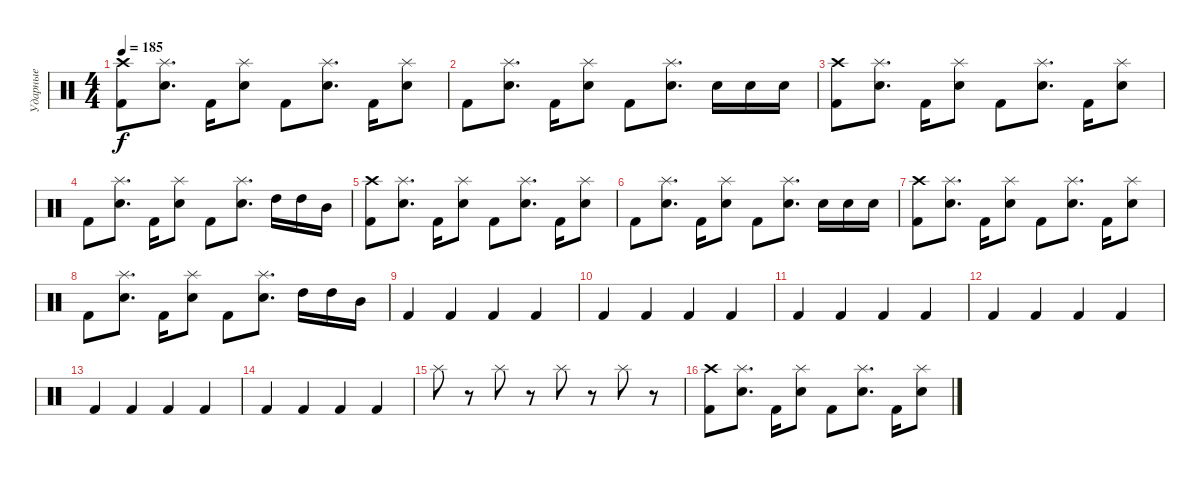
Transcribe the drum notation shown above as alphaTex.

\track ("Ударные" "Ударные") {instrument percussion}
\staff {score}
\articulation defaults
\ts (4 4)
\tempo 185
\clef neutral
\ks c
("Crash high (hit)" "Kick (hit) 2").8{dy f} ("Splash (hit)" "Electric Snare (hit)").8{d} "Kick (hit) 2".16 ("Splash (hit)" "Electric Snare (hit)").8 "Kick (hit) 2".8 ("Splash (hit)" "Electric Snare (hit)").8{d} "Kick (hit) 2".16 ("Splash (hit)" "Electric Snare (hit)").8 |
"Kick (hit) 2".8 ("Splash (hit)" "Electric Snare (hit)").8{d} "Kick (hit) 2".16 ("Splash (hit)" "Electric Snare (hit)").8 "Kick (hit) 2".8 ("Splash (hit)" "Electric Snare (hit)").8{d} "Electric Snare (hit)".16 "Electric Snare (hit)".16 "Electric Snare (hit)".16 |
("Crash high (hit)" "Kick (hit) 2").8 ("Splash (hit)" "Electric Snare (hit)").8{d} "Kick (hit) 2".16 ("Splash (hit)" "Electric Snare (hit)").8 "Kick (hit) 2".8 ("Splash (hit)" "Electric Snare (hit)").8{d} "Kick (hit) 2".16 ("Splash (hit)" "Electric Snare (hit)").8 |
"Kick (hit) 2".8 ("Splash (hit)" "Electric Snare (hit)").8{d} "Kick (hit) 2".16 ("Splash (hit)" "Electric Snare (hit)").8 "Kick (hit) 2".8 ("Splash (hit)" "Electric Snare (hit)").8{d} "High Tom (hit)".16 "High Tom (hit)".16 "Mid Tom (hit)".16 |
("Crash high (hit)" "Kick (hit) 2").8 ("Splash (hit)" "Electric Snare (hit)").8{d} "Kick (hit) 2".16 ("Splash (hit)" "Electric Snare (hit)").8 "Kick (hit) 2".8 ("Splash (hit)" "Electric Snare (hit)").8{d} "Kick (hit) 2".16 ("Splash (hit)" "Electric Snare (hit)").8 |
"Kick (hit) 2".8 ("Splash (hit)" "Electric Snare (hit)").8{d} "Kick (hit) 2".16 ("Splash (hit)" "Electric Snare (hit)").8 "Kick (hit) 2".8 ("Splash (hit)" "Electric Snare (hit)").8{d} "Electric Snare (hit)".16 "Electric Snare (hit)".16 "Electric Snare (hit)".16 |
("Crash high (hit)" "Kick (hit) 2").8 ("Splash (hit)" "Electric Snare (hit)").8{d} "Kick (hit) 2".16 ("Splash (hit)" "Electric Snare (hit)").8 "Kick (hit) 2".8 ("Splash (hit)" "Electric Snare (hit)").8{d} "Kick (hit) 2".16 ("Splash (hit)" "Electric Snare (hit)").8 |
"Kick (hit) 2".8 ("Splash (hit)" "Electric Snare (hit)").8{d} "Kick (hit) 2".16 ("Splash (hit)" "Electric Snare (hit)").8 "Kick (hit) 2".8 ("Splash (hit)" "Electric Snare (hit)").8{d} "High Tom (hit)".16 "High Tom (hit)".16 "Mid Tom (hit)".16 |
"Kick (hit) 2".4 "Kick (hit) 2".4 "Kick (hit) 2".4 "Kick (hit) 2".4 |
"Kick (hit) 2".4 "Kick (hit) 2".4 "Kick (hit) 2".4 "Kick (hit) 2".4 |
"Kick (hit) 2".4 "Kick (hit) 2".4 "Kick (hit) 2".4 "Kick (hit) 2".4 |
"Kick (hit) 2".4 "Kick (hit) 2".4 "Kick (hit) 2".4 "Kick (hit) 2".4 |
"Kick (hit) 2".4 "Kick (hit) 2".4 "Kick (hit) 2".4 "Kick (hit) 2".4 |
"Kick (hit) 2".4 "Kick (hit) 2".4 "Kick (hit) 2".4 "Kick (hit) 2".4 |
"Splash (hit)".8 r.8 "Splash (hit)".8 r.8 "Splash (hit)".8 r.8 "Splash (hit)".8 r.8 |
("Crash high (hit)" "Kick (hit) 2").8 ("Splash (hit)" "Electric Snare (hit)").8{d} "Kick (hit) 2".16 ("Splash (hit)" "Electric Snare (hit)").8 "Kick (hit) 2".8 ("Splash (hit)" "Electric Snare (hit)").8{d} "Kick (hit) 2".16 ("Splash (hit)" "Electric Snare (hit)").8
